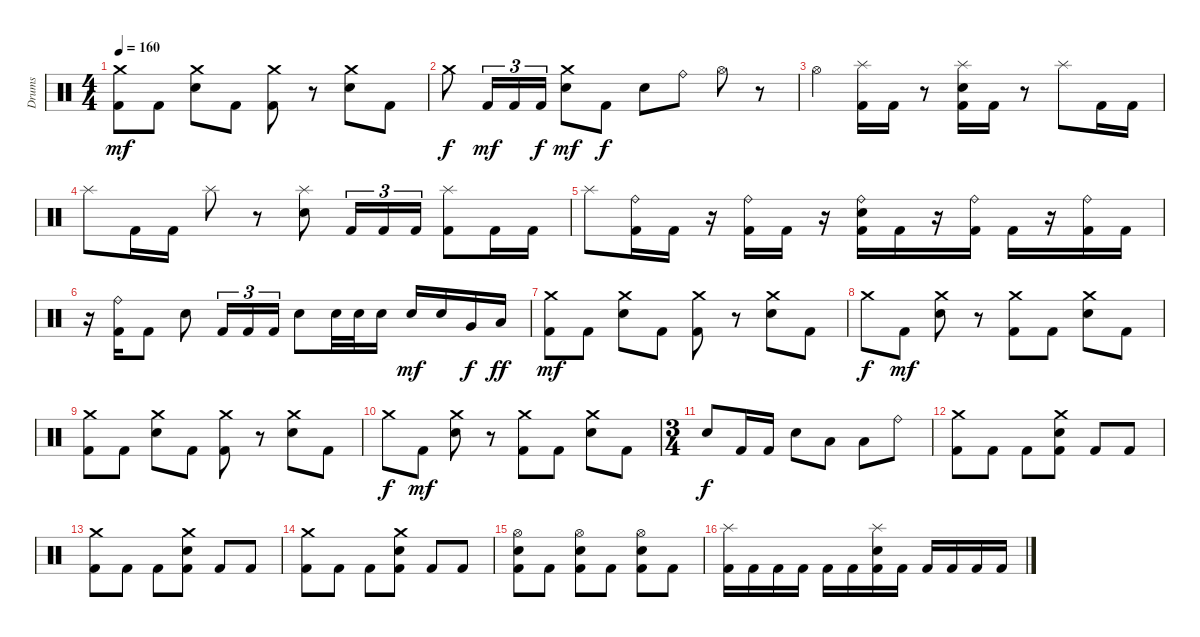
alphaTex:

\track ("Drums" "Drums") {instrument percussion}
\staff {score}
\articulation defaults
\ts (4 4)
\tempo 160
\clef neutral
\ks c
("Crash medium (hit)" "Kick (hit) 2").8{dy mf} "Kick (hit) 2".8 ("Crash medium (hit)" "Electric Snare (hit)").8 "Kick (hit) 2".8 ("Crash medium (hit)" "Kick (hit) 2").8 r.8 ("Crash medium (hit)" "Electric Snare (hit)").8 "Kick (hit) 2".8 |
"Crash medium (hit)".8{dy f} "Kick (hit) 2".16{tu (3 2) dy mf} "Kick (hit) 2".16{tu (3 2)} "Kick (hit) 2".16{tu (3 2) dy f} ("Crash medium (hit)" "Electric Snare (hit)").8{dy mf} "Kick (hit) 2".8{dy f} "Electric Snare (hit)".8 "Ride (bell)".8 "Hi-Hat (open)".8 r.8 |
"Hi-Hat (open)".4 ("Splash (hit)" "Kick (hit) 2").16 "Kick (hit) 2".16 r.8 ("Splash (hit)" "Electric Snare (hit)" "Kick (hit) 2").16 "Kick (hit) 2".16 r.8 "Splash (hit)".8 "Kick (hit) 2".16 "Kick (hit) 2".16 |
"Splash (hit)".8 "Kick (hit) 2".16 "Kick (hit) 2".16 "Splash (hit)".8 r.8 ("Splash (hit)" "Electric Snare (hit)").8 "Kick (hit) 2".16{tu (3 2)} "Kick (hit) 2".16{tu (3 2)} "Kick (hit) 2".16{tu (3 2)} ("Splash (hit)" "Kick (hit) 2").8 "Kick (hit) 2".16 "Kick (hit) 2".16 |
"Splash (hit)".8 ("Ride (bell)" "Kick (hit) 2").16 "Kick (hit) 2".16 r.16 ("Ride (bell)" "Kick (hit) 2").16 "Kick (hit) 2".16 r.16 ("Ride (bell)" "Electric Snare (hit)" "Kick (hit) 2").16 "Kick (hit) 2".16 r.16 ("Ride (bell)" "Kick (hit) 2").16 "Kick (hit) 2".16 r.16 ("Ride (bell)" "Kick (hit) 2").16 "Kick (hit) 2".16 |
r.16 ("Ride (bell)" "Kick (hit) 2").16 "Kick (hit) 2".8 "Electric Snare (hit)".8 "Kick (hit) 2".16{tu (3 2)} "Kick (hit) 2".16{tu (3 2)} "Kick (hit) 2".16{tu (3 2)} "Electric Snare (hit)".8 "Electric Snare (hit)".32 "Electric Snare (hit)".32 "Electric Snare (hit)".16 "Electric Snare (hit)".16{dy mf} "Electric Snare (hit)".16 "Very Low Tom (hit)".16{dy f} "Low Floor Tom (hit)".16{dy ff} |
("Crash medium (hit)" "Kick (hit) 2").8{dy mf} "Kick (hit) 2".8 ("Crash medium (hit)" "Electric Snare (hit)").8 "Kick (hit) 2".8 ("Crash medium (hit)" "Kick (hit) 2").8 r.8 ("Crash medium (hit)" "Electric Snare (hit)").8 "Kick (hit) 2".8 |
"Crash medium (hit)".8{dy f} "Kick (hit) 2".8{dy mf} ("Crash medium (hit)" "Electric Snare (hit)").8 r.8 ("Crash medium (hit)" "Kick (hit) 2").8 "Kick (hit) 2".8 ("Crash medium (hit)" "Electric Snare (hit)").8 "Kick (hit) 2".8 |
("Crash medium (hit)" "Kick (hit) 2").8 "Kick (hit) 2".8 ("Crash medium (hit)" "Electric Snare (hit)").8 "Kick (hit) 2".8 ("Crash medium (hit)" "Kick (hit) 2").8 r.8 ("Crash medium (hit)" "Electric Snare (hit)").8 "Kick (hit) 2".8 |
"Crash medium (hit)".8{dy f} "Kick (hit) 2".8{dy mf} ("Crash medium (hit)" "Electric Snare (hit)").8 r.8 ("Crash medium (hit)" "Kick (hit) 2").8 "Kick (hit) 2".8 ("Crash medium (hit)" "Electric Snare (hit)").8 "Kick (hit) 2".8 |
\ts (3 4)
"Electric Snare (hit)".8{dy f} "Kick (hit) 2".16 "Kick (hit) 2".16 "Electric Snare (hit)".8 "Low Tom (hit)".8 "Low Floor Tom (hit)".8 "Ride (bell)".8 |
("Crash medium (hit)" "Kick (hit) 2").8 "Kick (hit) 2".8 "Kick (hit) 2".8 ("Crash medium (hit)" "Electric Snare (hit)" "Kick (hit) 2").8 "Kick (hit) 2".8 "Kick (hit) 2".8 |
("Crash medium (hit)" "Kick (hit) 2").8 "Kick (hit) 2".8 "Kick (hit) 2".8 ("Crash medium (hit)" "Electric Snare (hit)" "Kick (hit) 2").8 "Kick (hit) 2".8 "Kick (hit) 2".8 |
("Crash medium (hit)" "Kick (hit) 2").8 "Kick (hit) 2".8 "Kick (hit) 2".8 ("Crash medium (hit)" "Electric Snare (hit)" "Kick (hit) 2").8 "Kick (hit) 2".8 "Kick (hit) 2".8 |
("Hi-Hat (open)" "Electric Snare (hit)" "Kick (hit) 2").8 "Kick (hit) 2".8 ("Hi-Hat (open)" "Electric Snare (hit)" "Kick (hit) 2").8 "Kick (hit) 2".8 ("Hi-Hat (open)" "Electric Snare (hit)" "Kick (hit) 2").8 "Kick (hit) 2".8 |
("Splash (hit)" "Kick (hit) 2").16 "Kick (hit) 2".16 "Kick (hit) 2".16 "Kick (hit) 2".16 "Kick (hit) 2".16 "Kick (hit) 2".16 ("Splash (hit)" "Electric Snare (hit)" "Kick (hit) 2").16 "Kick (hit) 2".16 "Kick (hit) 2".16 "Kick (hit) 2".16 "Kick (hit) 2".16 "Kick (hit) 2".16
